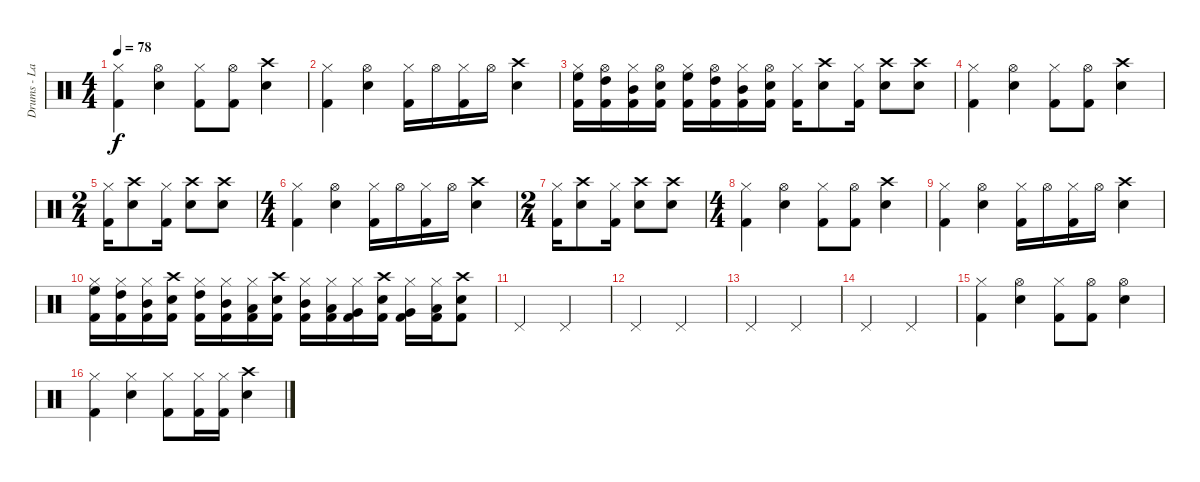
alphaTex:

\track ("Drums - Lars" "Drums - La") {instrument percussion}
\staff {score}
\articulation defaults
\ts (4 4)
\tempo 78
\clef neutral
\ks c
("Hi-Hat (closed)" "Kick (hit) 2").4{dy f} ("Hi-Hat (open)" "Electric Snare (hit)").4 ("Hi-Hat (closed)" "Kick (hit) 2").8 ("Hi-Hat (open)" "Kick (hit) 2").8 ("Crash high (hit)" "Electric Snare (hit)").4 |
("Hi-Hat (closed)" "Kick (hit) 2").4 ("Hi-Hat (open)" "Electric Snare (hit)").4 ("Hi-Hat (closed)" "Kick (hit) 2").16 "Hi-Hat (open)".16 ("Hi-Hat (closed)" "Kick (hit) 2").16 "Hi-Hat (open)".16 ("Crash high (hit)" "Electric Snare (hit)").4 |
("Hi-Hat (closed)" "High Floor Tom (hit)" "Kick (hit) 2").16 ("Hi-Hat (open)" "High Tom (hit)" "Kick (hit) 2").16 ("Hi-Hat (closed)" "Mid Tom (hit)" "Kick (hit) 2").16 ("Hi-Hat (open)" "Electric Snare (hit)" "Kick (hit) 2").16 ("Hi-Hat (closed)" "High Floor Tom (hit)" "Kick (hit) 2").16 ("Hi-Hat (open)" "High Tom (hit)" "Kick (hit) 2").16 ("Hi-Hat (closed)" "Mid Tom (hit)" "Kick (hit) 2").16 ("Hi-Hat (open)" "Electric Snare (hit)" "Kick (hit) 2").16 ("Hi-Hat (closed)" "Kick (hit) 2").16 ("Crash high (hit)" "Electric Snare (hit)").8 ("Hi-Hat (closed)" "Kick (hit) 2").16 ("Crash high (hit)" "Electric Snare (hit)").8 ("Crash high (hit)" "Electric Snare (hit)").8 |
("Hi-Hat (closed)" "Kick (hit) 2").4 ("Hi-Hat (open)" "Electric Snare (hit)").4 ("Hi-Hat (closed)" "Kick (hit) 2").8 ("Hi-Hat (open)" "Kick (hit) 2").8 ("Crash high (hit)" "Electric Snare (hit)").4 |
\ts (2 4)
("Hi-Hat (closed)" "Kick (hit) 2").16 ("Crash high (hit)" "Electric Snare (hit)").8 ("Hi-Hat (closed)" "Kick (hit) 2").16 ("Crash high (hit)" "Electric Snare (hit)").8 ("Crash high (hit)" "Electric Snare (hit)").8 |
\ts (4 4)
("Hi-Hat (closed)" "Kick (hit) 2").4 ("Hi-Hat (open)" "Electric Snare (hit)").4 ("Hi-Hat (closed)" "Kick (hit) 2").16 "Hi-Hat (open)".16 ("Hi-Hat (closed)" "Kick (hit) 2").16 "Hi-Hat (open)".16 ("Crash high (hit)" "Electric Snare (hit)").4 |
\ts (2 4)
("Hi-Hat (closed)" "Kick (hit) 2").16 ("Crash high (hit)" "Electric Snare (hit)").8 ("Hi-Hat (closed)" "Kick (hit) 2").16 ("Crash high (hit)" "Electric Snare (hit)").8 ("Crash high (hit)" "Electric Snare (hit)").8 |
\ts (4 4)
("Hi-Hat (closed)" "Kick (hit) 2").4 ("Hi-Hat (open)" "Electric Snare (hit)").4 ("Hi-Hat (closed)" "Kick (hit) 2").8 ("Hi-Hat (open)" "Kick (hit) 2").8 ("Crash high (hit)" "Electric Snare (hit)").4 |
("Hi-Hat (closed)" "Kick (hit) 2").4 ("Hi-Hat (open)" "Electric Snare (hit)").4 ("Hi-Hat (closed)" "Kick (hit) 2").16 "Hi-Hat (open)".16 ("Hi-Hat (closed)" "Kick (hit) 2").16 "Hi-Hat (open)".16 ("Crash high (hit)" "Electric Snare (hit)").4 |
("Hi-Hat (closed)" "High Floor Tom (hit)" "Kick (hit) 2").16 ("Hi-Hat (closed)" "High Tom (hit)" "Kick (hit) 2").16 ("Hi-Hat (closed)" "Mid Tom (hit)" "Kick (hit) 2").16 ("Crash high (hit)" "Electric Snare (hit)" "Kick (hit) 2").16 ("Hi-Hat (closed)" "High Tom (hit)" "Kick (hit) 2").16 ("Hi-Hat (closed)" "Mid Tom (hit)" "Kick (hit) 2").16 ("Hi-Hat (closed)" "Low Tom (hit)" "Kick (hit) 2").16 ("Crash high (hit)" "Electric Snare (hit)" "Kick (hit) 2").16 ("Hi-Hat (closed)" "Mid Tom (hit)" "Kick (hit) 2").16 ("Hi-Hat (closed)" "Low Tom (hit)" "Kick (hit) 2").16 ("Hi-Hat (closed)" "Very Low Tom (hit)" "Kick (hit) 2").16 ("Crash high (hit)" "Electric Snare (hit)" "Kick (hit) 2").16 ("Hi-Hat (closed)" "Very Low Tom (hit)" "Kick (hit) 2").16 ("Hi-Hat (closed)" "Low Floor Tom (hit)" "Kick (hit) 2").16 ("Crash high (hit)" "Electric Snare (hit)" "Kick (hit) 2").8 |
"Pedal Hi-Hat (hit)".2 "Pedal Hi-Hat (hit)".2 |
"Pedal Hi-Hat (hit)".2 "Pedal Hi-Hat (hit)".2 |
"Pedal Hi-Hat (hit)".2 "Pedal Hi-Hat (hit)".2 |
"Pedal Hi-Hat (hit)".2 "Pedal Hi-Hat (hit)".2 |
("Hi-Hat (closed)" "Kick (hit) 2").4 ("Hi-Hat (open)" "Electric Snare (hit)").4 ("Hi-Hat (closed)" "Kick (hit) 2").8 ("Hi-Hat (open)" "Kick (hit) 2").8 ("Hi-Hat (open)" "Electric Snare (hit)").4 |
("Hi-Hat (closed)" "Kick (hit) 2").4 ("Hi-Hat (closed)" "Electric Snare (hit)").4 ("Hi-Hat (closed)" "Kick (hit) 2").8 ("Hi-Hat (closed)" "Kick (hit) 2").16 ("Hi-Hat (closed)" "Kick (hit) 2").16 ("Crash high (hit)" "Electric Snare (hit)").4
